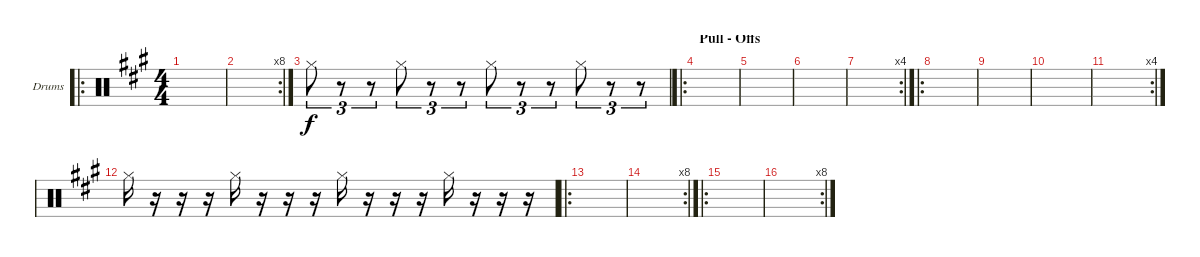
\defaultSystemsLayout 4
\bracketExtendMode groupsimilarinstruments
\firstSystemTrackNameOrientation horizontal
\otherSystemsTrackNameOrientation horizontal
\track ("Drumkit" "Drums") {instrument percussion}
\staff {score}
\articulation defaults
\ro
\ts (4 4)
\tempo (100 hide)
\clef neutral
\scale
0.365079
\ks a
|
\rc 8
\scale
0.333333 |
\scale
0.301587 "Hi-Hat (closed)".8{tu (3 2)} r.8{tu (3 2)} r.8{tu (3 2)} "Hi-Hat (closed)".8{tu (3 2)} r.8{tu (3 2)} r.8{tu (3 2)} "Hi-Hat (closed)".8{tu (3 2)} r.8{tu (3 2)} r.8{tu (3 2)} "Hi-Hat (closed)".8{tu (3 2)} r.8{tu (3 2)} r.8{tu (3 2)} |
\ro
\section ("" "Pull - Offs")
\scale
0.377049 |
\scale
0.311475 |
\scale
0.311475 |
\rc 4
\scale
0.333333 |
\ro
\scale
0.365079 |
\scale
0.301587 |
\scale
0.322034 |
\rc 4
\scale
0.355932 |
\scale
0.322034 "Hi-Hat (closed)".16 r.16 r.16 r.16 "Hi-Hat (closed)".16 r.16 r.16 r.16 "Hi-Hat (closed)".16 r.16 r.16 r.16 "Hi-Hat (closed)".16 r.16 r.16 r.16 |
\ro
\scale
0.343284 |
\rc 8
\scale
0.313433 |
\ro
\scale
0.343284 |
\rc 8
\scale
0.333333
